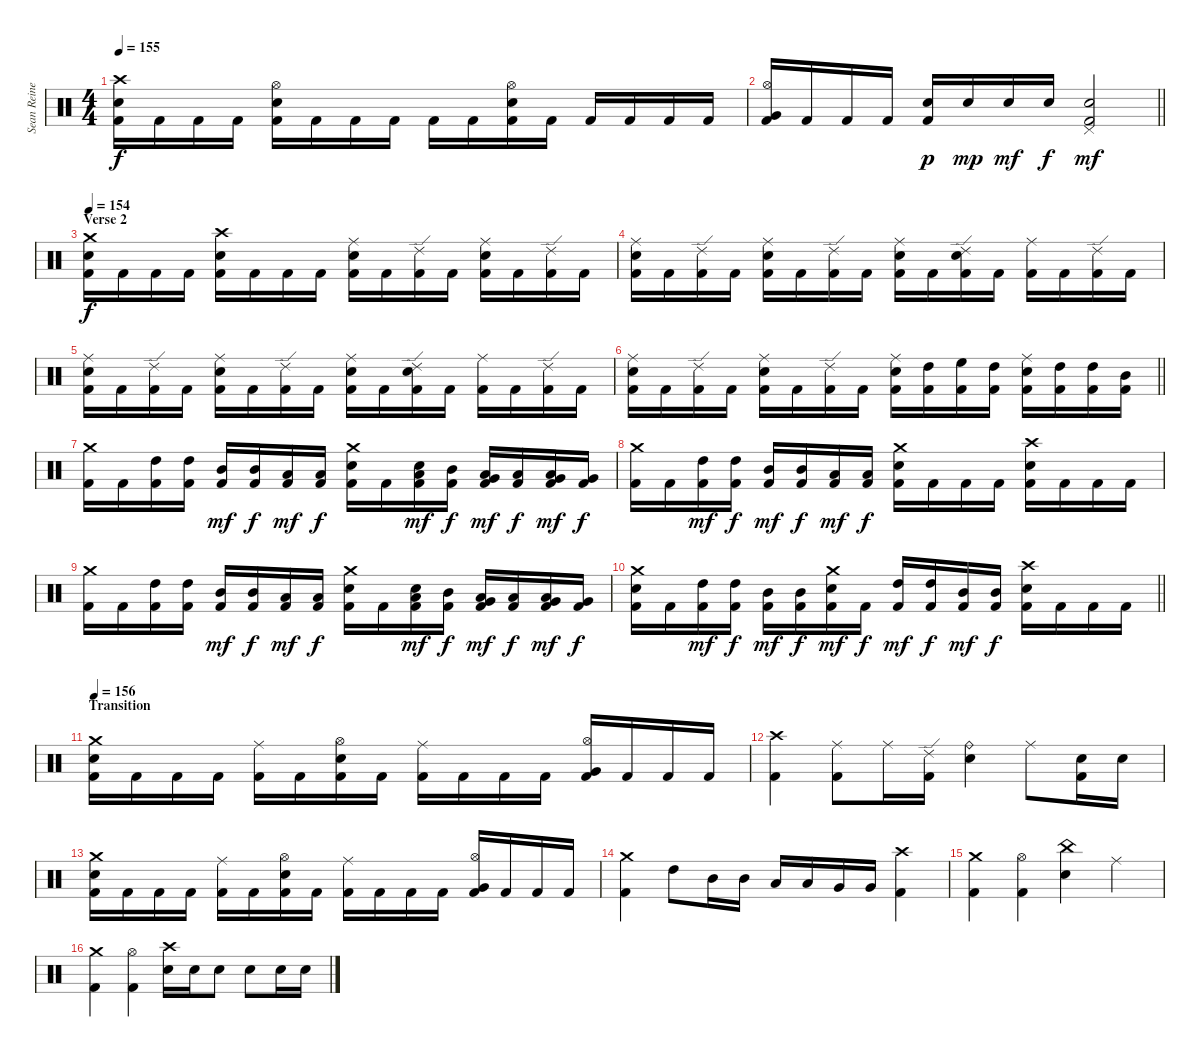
\track ("Sean Reinert" "Sean Reine") {instrument percussion}
\staff {score}
\articulation defaults
\ts (4 4)
\tempo 155
\clef neutral
\ks c
("Crash high (hit)" "Snare (hit) 2" "Kick (hit) 2").16{dy f} "Kick (hit) 2".16 "Kick (hit) 2".16 "Kick (hit) 2".16 ("Hi-Hat (open)" "Snare (hit) 2" "Kick (hit) 2").16 "Kick (hit) 2".16 "Kick (hit) 2".16 "Kick (hit) 2".16 "Kick (hit) 2".16 "Kick (hit) 2".16 ("Hi-Hat (open)" "Snare (hit) 2" "Kick (hit) 2").16 "Kick (hit) 2".16 "Kick (hit) 2".16 "Kick (hit) 2".16 "Kick (hit) 2".16 "Kick (hit) 2".16 |
\barLineRight lightlight
("Hi-Hat (open)" "Very Low Tom (hit)" "Kick (hit) 2").16 "Kick (hit) 2".16 "Kick (hit) 2".16 "Kick (hit) 2".16 ("Snare (hit) 2" "Kick (hit) 2").16{dy p} "Snare (hit) 2".16{dy mp} "Snare (hit) 2".16{dy mf} "Snare (hit) 2".16{dy f} ("Pedal Hi-Hat (hit)" "Snare (hit) 2" "Kick (hit) 2").2{dy mf} |
\section ("" "Verse 2")
\tempo 154
("Crash medium (hit)" "Snare (hit) 2" "Kick (hit) 2").16{dy f} "Kick (hit) 2".16 "Kick (hit) 2".16 "Kick (hit) 2".16 ("Crash high (hit)" "Snare (hit) 2" "Kick (hit) 2").16 "Kick (hit) 2".16 "Kick (hit) 2".16 "Kick (hit) 2".16 ("Ride (middle)" "Snare (hit) 2" "Kick (hit) 2").16 "Kick (hit) 2".16 ("Ride (edge) 2" "Kick (hit) 2").16 "Kick (hit) 2".16 ("Ride (middle)" "Snare (hit) 2" "Kick (hit) 2").16 "Kick (hit) 2".16 ("Ride (edge) 2" "Kick (hit) 2").16 "Kick (hit) 2".16 |
("Ride (middle)" "Snare (hit) 2" "Kick (hit) 2").16 "Kick (hit) 2".16 ("Ride (edge) 2" "Kick (hit) 2").16 "Kick (hit) 2".16 ("Ride (middle)" "Snare (hit) 2" "Kick (hit) 2").16 "Kick (hit) 2".16 ("Ride (edge) 2" "Kick (hit) 2").16 "Kick (hit) 2".16 ("Ride (middle)" "Snare (hit) 2" "Kick (hit) 2").16 "Kick (hit) 2".16 ("Ride (edge) 2" "Snare (hit) 2" "Kick (hit) 2").16 "Kick (hit) 2".16 ("Ride (middle)" "Kick (hit) 2").16 "Kick (hit) 2".16 ("Ride (edge) 2" "Kick (hit) 2").16 "Kick (hit) 2".16 |
("Ride (middle)" "Snare (hit) 2" "Kick (hit) 2").16 "Kick (hit) 2".16 ("Ride (edge) 2" "Kick (hit) 2").16 "Kick (hit) 2".16 ("Ride (middle)" "Snare (hit) 2" "Kick (hit) 2").16 "Kick (hit) 2".16 ("Ride (edge) 2" "Kick (hit) 2").16 "Kick (hit) 2".16 ("Ride (middle)" "Snare (hit) 2" "Kick (hit) 2").16 "Kick (hit) 2".16 ("Ride (edge) 2" "Snare (hit) 2" "Kick (hit) 2").16 "Kick (hit) 2".16 ("Ride (middle)" "Kick (hit) 2").16 "Kick (hit) 2".16 ("Ride (edge) 2" "Kick (hit) 2").16 "Kick (hit) 2".16 |
\barLineRight lightlight
("Ride (middle)" "Snare (hit) 2" "Kick (hit) 2").16 "Kick (hit) 2".16 ("Ride (edge) 2" "Kick (hit) 2").16 "Kick (hit) 2".16 ("Ride (middle)" "Snare (hit) 2" "Kick (hit) 2").16 "Kick (hit) 2".16 ("Ride (edge) 2" "Kick (hit) 2").16 "Kick (hit) 2".16 ("Ride (middle)" "Snare (hit) 2" "Kick (hit) 2").16 ("High Tom (hit)" "Kick (hit) 2").16 ("High Floor Tom (hit)" "Kick (hit) 2").16 ("High Tom (hit)" "Kick (hit) 2").16 ("Ride (middle)" "Snare (hit) 2" "Kick (hit) 2").16 ("High Tom (hit)" "Kick (hit) 2").16 ("High Tom (hit)" "Kick (hit) 2").16 ("Mid Tom (hit)" "Kick (hit) 2").16 |
("Crash medium (hit)" "Kick (hit) 2").16 "Kick (hit) 2".16 ("High Tom (hit)" "Kick (hit) 2").16 ("High Tom (hit)" "Kick (hit) 2").16 ("Mid Tom (hit)" "Kick (hit) 2").16{dy mf} ("Mid Tom (hit)" "Kick (hit) 2").16{dy f} ("Low Tom (hit)" "Kick (hit) 2").16{dy mf} ("Low Tom (hit)" "Kick (hit) 2").16{dy f} ("Crash medium (hit)" "Snare (hit) 2" "Kick (hit) 2").16 "Kick (hit) 2".16 ("Low Tom (hit)" "Snare (hit) 2" "Kick (hit) 2").16{dy mf} ("Mid Tom (hit)" "Kick (hit) 2").16{dy f} ("Low Tom (hit)" "Very Low Tom (hit)" "Kick (hit) 2").16{dy mf} ("Low Tom (hit)" "Kick (hit) 2").16{dy f} ("Very Low Tom (hit)" "Low Floor Tom (hit)" "Kick (hit) 2").16{dy mf} ("Very Low Tom (hit)" "Kick (hit) 2").16{dy f} |
("Crash medium (hit)" "Kick (hit) 2").16 "Kick (hit) 2".16 ("High Tom (hit)" "Kick (hit) 2").16{dy mf} ("High Tom (hit)" "Kick (hit) 2").16{dy f} ("Mid Tom (hit)" "Kick (hit) 2").16{dy mf} ("Mid Tom (hit)" "Kick (hit) 2").16{dy f} ("Low Tom (hit)" "Kick (hit) 2").16{dy mf} ("Low Tom (hit)" "Kick (hit) 2").16{dy f} ("Crash medium (hit)" "Snare (hit) 2" "Kick (hit) 2").16 "Kick (hit) 2".16 "Kick (hit) 2".16 "Kick (hit) 2".16 ("Crash high (hit)" "Snare (hit) 2" "Kick (hit) 2").16 "Kick (hit) 2".16 "Kick (hit) 2".16 "Kick (hit) 2".16 |
("Crash medium (hit)" "Kick (hit) 2").16 "Kick (hit) 2".16 ("High Tom (hit)" "Kick (hit) 2").16 ("High Tom (hit)" "Kick (hit) 2").16 ("Mid Tom (hit)" "Kick (hit) 2").16{dy mf} ("Mid Tom (hit)" "Kick (hit) 2").16{dy f} ("Low Tom (hit)" "Kick (hit) 2").16{dy mf} ("Low Tom (hit)" "Kick (hit) 2").16{dy f} ("Crash medium (hit)" "Snare (hit) 2" "Kick (hit) 2").16 "Kick (hit) 2".16 ("Low Tom (hit)" "Snare (hit) 2" "Kick (hit) 2").16{dy mf} ("Mid Tom (hit)" "Kick (hit) 2").16{dy f} ("Low Tom (hit)" "Very Low Tom (hit)" "Kick (hit) 2").16{dy mf} ("Low Tom (hit)" "Kick (hit) 2").16{dy f} ("Very Low Tom (hit)" "Low Floor Tom (hit)" "Kick (hit) 2").16{dy mf} ("Very Low Tom (hit)" "Kick (hit) 2").16{dy f} |
\barLineRight lightlight
("Crash medium (hit)" "Snare (hit) 2" "Kick (hit) 2").16 "Kick (hit) 2".16 ("High Tom (hit)" "Kick (hit) 2").16{dy mf} ("High Tom (hit)" "Kick (hit) 2").16{dy f} ("Mid Tom (hit)" "Kick (hit) 2").16{dy mf} ("Mid Tom (hit)" "Kick (hit) 2").16{dy f} ("Crash medium (hit)" "Snare (hit) 2" "Kick (hit) 2").16{dy mf} "Kick (hit) 2".16{dy f} ("High Tom (hit)" "Kick (hit) 2").16{dy mf} ("High Tom (hit)" "Kick (hit) 2").16{dy f} ("Mid Tom (hit)" "Kick (hit) 2").16{dy mf} ("Mid Tom (hit)" "Kick (hit) 2").16{dy f} ("Crash high (hit)" "Snare (hit) 2" "Kick (hit) 2").16 "Kick (hit) 2".16 "Kick (hit) 2".16 "Kick (hit) 2".16 |
\section ("" "Transition")
\tempo 156
("Crash medium (hit)" "Snare (hit) 2" "Kick (hit) 2").16 "Kick (hit) 2".16 "Kick (hit) 2".16 "Kick (hit) 2".16 ("Ride (middle)" "Kick (hit) 2").16 "Kick (hit) 2".16 ("Hi-Hat (open)" "Snare (hit) 2" "Kick (hit) 2").16 "Kick (hit) 2".16 ("Ride (middle)" "Kick (hit) 2").16 "Kick (hit) 2".16 "Kick (hit) 2".16 "Kick (hit) 2".16 ("Hi-Hat (open)" "Very Low Tom (hit)" "Kick (hit) 2").16 "Kick (hit) 2".16 "Kick (hit) 2".16 "Kick (hit) 2".16 |
("Crash high (hit)" "Kick (hit) 2").4 ("Ride (middle)" "Kick (hit) 2").8 "Ride (middle)".16 ("Ride (edge) 2" "Kick (hit) 2").16 ("Ride (bell)" "Snare (hit) 2").4 "Ride (middle)".8 ("Snare (hit) 2" "Kick (hit) 2").16 "Snare (hit) 2".16 |
("Crash medium (hit)" "Snare (hit) 2" "Kick (hit) 2").16 "Kick (hit) 2".16 "Kick (hit) 2".16 "Kick (hit) 2".16 ("Ride (middle)" "Kick (hit) 2").16 "Kick (hit) 2".16 ("Hi-Hat (open)" "Snare (hit) 2" "Kick (hit) 2").16 "Kick (hit) 2".16 ("Ride (middle)" "Kick (hit) 2").16 "Kick (hit) 2".16 "Kick (hit) 2".16 "Kick (hit) 2".16 ("Hi-Hat (open)" "Very Low Tom (hit)" "Kick (hit) 2").16 "Kick (hit) 2".16 "Kick (hit) 2".16 "Kick (hit) 2".16 |
("Crash medium (hit)" "Kick (hit) 2").4 "High Tom (hit)".8 "Mid Tom (hit)".16 "Mid Tom (hit)".16 "Low Tom (hit)".16 "Low Tom (hit)".16 "Very Low Tom (hit)".16 "Very Low Tom (hit)".16 ("Crash high (hit)" "Kick (hit) 2").4 |
("Crash medium (hit)" "Kick (hit) 2").4 ("Hi-Hat (open)" "Kick (hit) 2").4 ("China (hit)" "Snare (hit) 2").4 "Ride (middle)".4 |
("Crash medium (hit)" "Kick (hit) 2").4 ("Hi-Hat (open)" "Kick (hit) 2").4 ("Crash high (hit)" "Snare (hit) 2").16 "Snare (hit) 2".16 "Snare (hit) 2".8 "Snare (hit) 2".8 "Snare (hit) 2".16 "Snare (hit) 2".16
